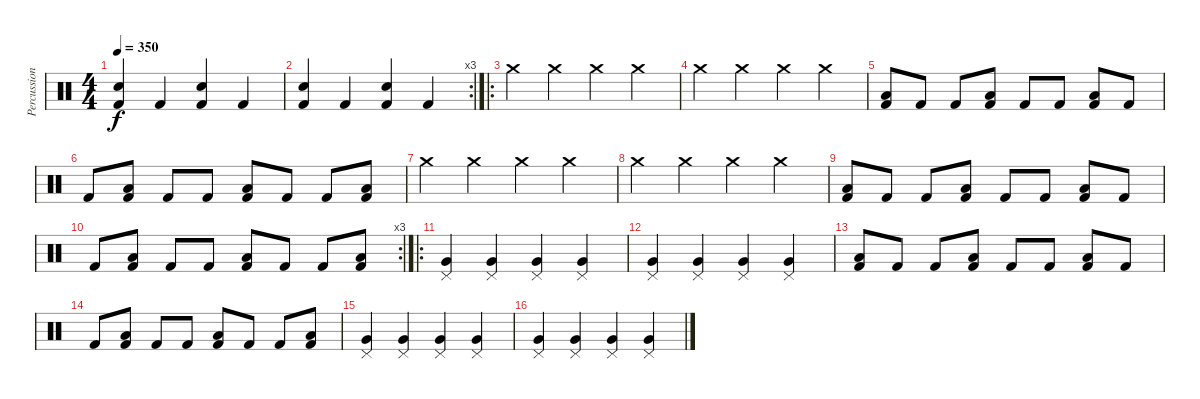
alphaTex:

\track ("Percussion" "Percussion") {instrument percussion}
\staff {score}
\articulation defaults
\ts (4 4)
\tempo 350
\clef neutral
\ks c
("Snare (hit) 2" "Kick (hit) 2").4{dy f} "Kick (hit) 2".4 ("Snare (hit) 2" "Kick (hit) 2").4 "Kick (hit) 2".4 |
\rc 3
("Snare (hit) 2" "Kick (hit) 2").4 "Kick (hit) 2".4 ("Snare (hit) 2" "Kick (hit) 2").4 "Kick (hit) 2".4 |
\ro "Crash medium (hit)".4 "Crash medium (hit)".4 "Crash medium (hit)".4 "Crash medium (hit)".4
|
"Crash medium (hit)".4 "Crash medium (hit)".4 "Crash medium (hit)".4 "Crash medium (hit)".4 |
("Low Floor Tom (hit)" "Kick (hit) 2").8 "Kick (hit) 2".8 "Kick (hit) 2".8 ("Low Floor Tom (hit)" "Kick (hit) 2").8 "Kick (hit) 2".8 "Kick (hit) 2".8 ("Low Floor Tom (hit)" "Kick (hit) 2").8 "Kick (hit) 2".8 |
"Kick (hit) 2".8 ("Low Floor Tom (hit)" "Kick (hit) 2").8 "Kick (hit) 2".8 "Kick (hit) 2".8 ("Low Floor Tom (hit)" "Kick (hit) 2").8 "Kick (hit) 2".8 "Kick (hit) 2".8 ("Low Floor Tom (hit)" "Kick (hit) 2").8 |
"Crash medium (hit)".4 "Crash medium (hit)".4 "Crash medium (hit)".4 "Crash medium (hit)".4 |
"Crash medium (hit)".4 "Crash medium (hit)".4 "Crash medium (hit)".4 "Crash medium (hit)".4 |
("Low Floor Tom (hit)" "Kick (hit) 2").8 "Kick (hit) 2".8 "Kick (hit) 2".8 ("Low Floor Tom (hit)" "Kick (hit) 2").8 "Kick (hit) 2".8 "Kick (hit) 2".8 ("Low Floor Tom (hit)" "Kick (hit) 2").8 "Kick (hit) 2".8 |
\rc 3 "Kick (hit) 2".8
("Low Floor Tom (hit)" "Kick (hit) 2").8 "Kick (hit) 2".8 "Kick (hit) 2".8 ("Low Floor Tom (hit)" "Kick (hit) 2").8 "Kick (hit) 2".8 "Kick (hit) 2".8 ("Low Floor Tom (hit)" "Kick (hit) 2").8 |
\ro
("Pedal Hi-Hat (hit)" "Very Low Tom (hit)").4 ("Pedal Hi-Hat (hit)" "Very Low Tom (hit)").4 ("Pedal Hi-Hat (hit)" "Very Low Tom (hit)").4 ("Pedal Hi-Hat (hit)" "Very Low Tom (hit)").4 |
("Pedal Hi-Hat (hit)" "Very Low Tom (hit)").4 ("Pedal Hi-Hat (hit)" "Very Low Tom (hit)").4 ("Pedal Hi-Hat (hit)" "Very Low Tom (hit)").4 ("Pedal Hi-Hat (hit)" "Very Low Tom (hit)").4 |
("Low Floor Tom (hit)" "Kick (hit) 2").8 "Kick (hit) 2".8 "Kick (hit) 2".8 ("Low Floor Tom (hit)" "Kick (hit) 2").8 "Kick (hit) 2".8 "Kick (hit) 2".8 ("Low Floor Tom (hit)" "Kick (hit) 2").8 "Kick (hit) 2".8 |
"Kick (hit) 2".8 ("Low Floor Tom (hit)" "Kick (hit) 2").8 "Kick (hit) 2".8 "Kick (hit) 2".8 ("Low Floor Tom (hit)" "Kick (hit) 2").8 "Kick (hit) 2".8 "Kick (hit) 2".8 ("Low Floor Tom (hit)" "Kick (hit) 2").8 |
("Pedal Hi-Hat (hit)" "Very Low Tom (hit)").4 ("Pedal Hi-Hat (hit)" "Very Low Tom (hit)").4 ("Pedal Hi-Hat (hit)" "Very Low Tom (hit)").4 ("Pedal Hi-Hat (hit)" "Very Low Tom (hit)").4 |
("Pedal Hi-Hat (hit)" "Very Low Tom (hit)").4 ("Pedal Hi-Hat (hit)" "Very Low Tom (hit)").4 ("Pedal Hi-Hat (hit)" "Very Low Tom (hit)").4 ("Pedal Hi-Hat (hit)" "Very Low Tom (hit)").4
